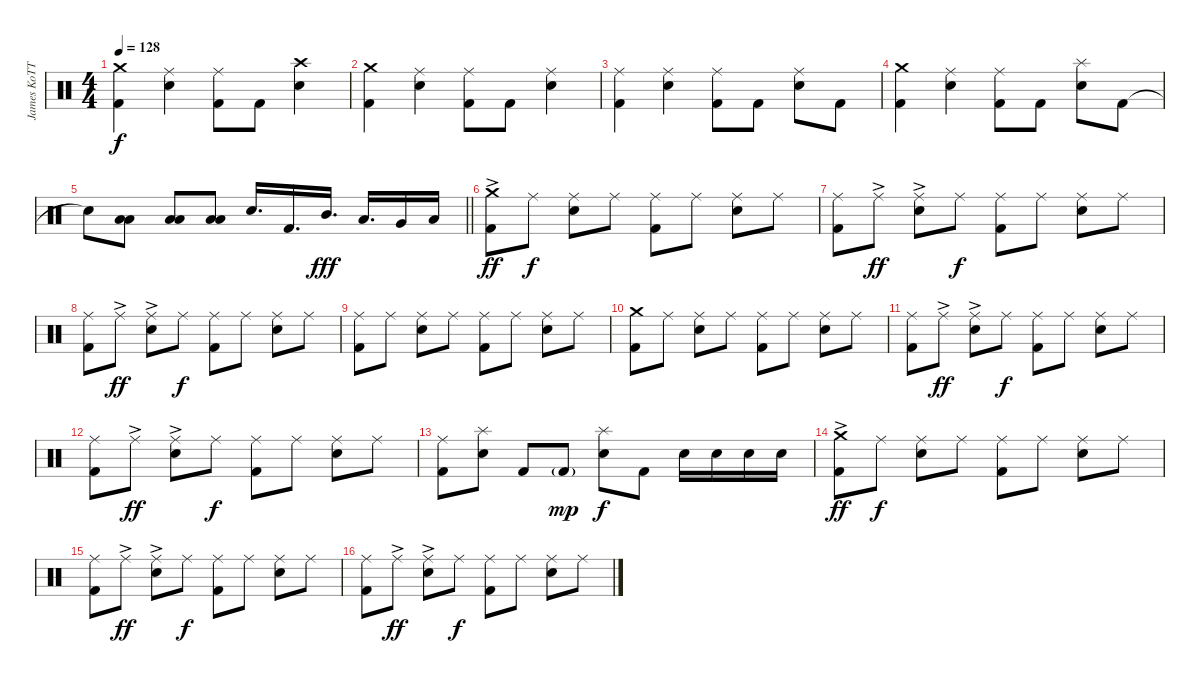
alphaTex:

\track ("James KoTTak" "James KoTT") {instrument percussion}
\staff {score}
\articulation defaults
\ts (4 4)
\tempo 128
\clef neutral
\ks c
("Crash medium (hit)" "Kick (hit) 2").4{dy f} ("Ride (middle)" "Snare (hit) 2").4 ("Ride (middle)" "Kick (hit) 2").8 "Kick (hit) 2".8 ("Crash high (hit)" "Snare (hit) 2").4 |
("Crash medium (hit)" "Kick (hit) 2").4 ("Ride (middle)" "Snare (hit) 2").4 ("Ride (middle)" "Kick (hit) 2").8 "Kick (hit) 2".8 ("Ride (middle)" "Snare (hit) 2").4 |
("Ride (middle)" "Kick (hit) 2").4 ("Ride (middle)" "Snare (hit) 2").4 ("Ride (middle)" "Kick (hit) 2").8 "Kick (hit) 2".8 ("Ride (middle)" "Snare (hit) 2").8 "Kick (hit) 2".8 |
("Crash medium (hit)" "Kick (hit) 2").4 ("Ride (middle)" "Snare (hit) 2").4 ("Ride (middle)" "Kick (hit) 2").8 "Kick (hit) 2".8 ("Splash (hit)" "Snare (hit) 2").8 "Kick (hit) 2".8 |
\barLineRight lightlight "Snare (hit)"{t}.8
("Low Tom (hit)" "Low Tom (hit)").8{bd 120} ("Low Tom (hit)" "Low Tom (hit)").8{bd 120} ("Low Tom (hit)" "Low Tom (hit)").8{bd 120} "Snare (hit) 2".16{d} "Kick (hit) 2".16{d} "Mid Tom (hit)".16{d dy fff} "Low Tom (hit)".16{d} "Very Low Tom (hit)".16 "Low Floor Tom (hit)".16 |
("Crash medium (hit)"{ac} "Kick (hit) 2").8{dy ff} "Ride (middle)".8{dy f} ("Ride (middle)" "Snare (hit) 2").8 "Ride (middle)".8 ("Ride (middle)" "Kick (hit) 2").8 "Ride (middle)".8 ("Ride (middle)" "Snare (hit) 2").8 "Ride (middle)".8 |
("Kick (hit) 2" "Ride (middle)").8 "Ride (middle)"{ac}.8{dy ff} ("Ride (middle)"{ac} "Snare (hit) 2").8 "Ride (middle)".8{dy f} ("Ride (middle)" "Kick (hit) 2").8 "Ride (middle)".8 ("Ride (middle)" "Snare (hit) 2").8 "Ride (middle)".8 |
("Kick (hit) 2" "Ride (middle)").8 "Ride (middle)"{ac}.8{dy ff} ("Ride (middle)"{ac} "Snare (hit) 2").8 "Ride (middle)".8{dy f} ("Ride (middle)" "Kick (hit) 2").8 "Ride (middle)".8 ("Ride (middle)" "Snare (hit) 2").8 "Ride (middle)".8 |
("Kick (hit) 2" "Ride (middle)").8 "Ride (middle)".8 ("Ride (middle)" "Snare (hit) 2").8 "Ride (middle)".8 ("Ride (middle)" "Kick (hit) 2").8 "Ride (middle)".8 ("Ride (middle)" "Snare (hit) 2").8 "Ride (middle)".8 |
("Kick (hit) 2" "Crash medium (hit)").8 "Ride (middle)".8 ("Ride (middle)" "Snare (hit) 2").8 "Ride (middle)".8 ("Ride (middle)" "Kick (hit) 2").8 "Ride (middle)".8 ("Ride (middle)" "Snare (hit) 2").8 "Ride (middle)".8 |
("Kick (hit) 2" "Ride (middle)").8 "Ride (middle)"{ac}.8{dy ff} ("Ride (middle)"{ac} "Snare (hit) 2").8 "Ride (middle)".8{dy f} ("Ride (middle)" "Kick (hit) 2").8 "Ride (middle)".8 ("Ride (middle)" "Snare (hit) 2").8 "Ride (middle)".8 |
("Kick (hit) 2" "Ride (middle)").8 "Ride (middle)"{ac}.8{dy ff} ("Ride (middle)"{ac} "Snare (hit) 2").8 "Ride (middle)".8{dy f} ("Ride (middle)" "Kick (hit) 2").8 "Ride (middle)".8 ("Ride (middle)" "Snare (hit) 2").8 "Ride (middle)".8 |
("Kick (hit) 2" "Ride (middle)").8 ("Splash (hit)" "Snare (hit) 2").8 "Kick (hit) 2".8 "Kick (hit) 2"{g}.8{dy mp} ("Splash (hit)" "Snare (hit) 2").8{dy f} "Kick (hit) 2".8 "Snare (hit) 2".16 "Snare (hit) 2".16 "Snare (hit) 2".16 "Snare (hit) 2".16 |
("Crash medium (hit)"{ac} "Kick (hit) 2").8{dy ff} "Ride (middle)".8{dy f} ("Ride (middle)" "Snare (hit) 2").8 "Ride (middle)".8 ("Ride (middle)" "Kick (hit) 2").8 "Ride (middle)".8 ("Ride (middle)" "Snare (hit) 2").8 "Ride (middle)".8 |
("Kick (hit) 2" "Ride (middle)").8 "Ride (middle)"{ac}.8{dy ff} ("Ride (middle)"{ac} "Snare (hit) 2").8 "Ride (middle)".8{dy f} ("Ride (middle)" "Kick (hit) 2").8 "Ride (middle)".8 ("Ride (middle)" "Snare (hit) 2").8 "Ride (middle)".8 |
("Kick (hit) 2" "Ride (middle)").8 "Ride (middle)"{ac}.8{dy ff} ("Ride (middle)"{ac} "Snare (hit) 2").8 "Ride (middle)".8{dy f} ("Ride (middle)" "Kick (hit) 2").8 "Ride (middle)".8 ("Ride (middle)" "Snare (hit) 2").8 "Ride (middle)".8
